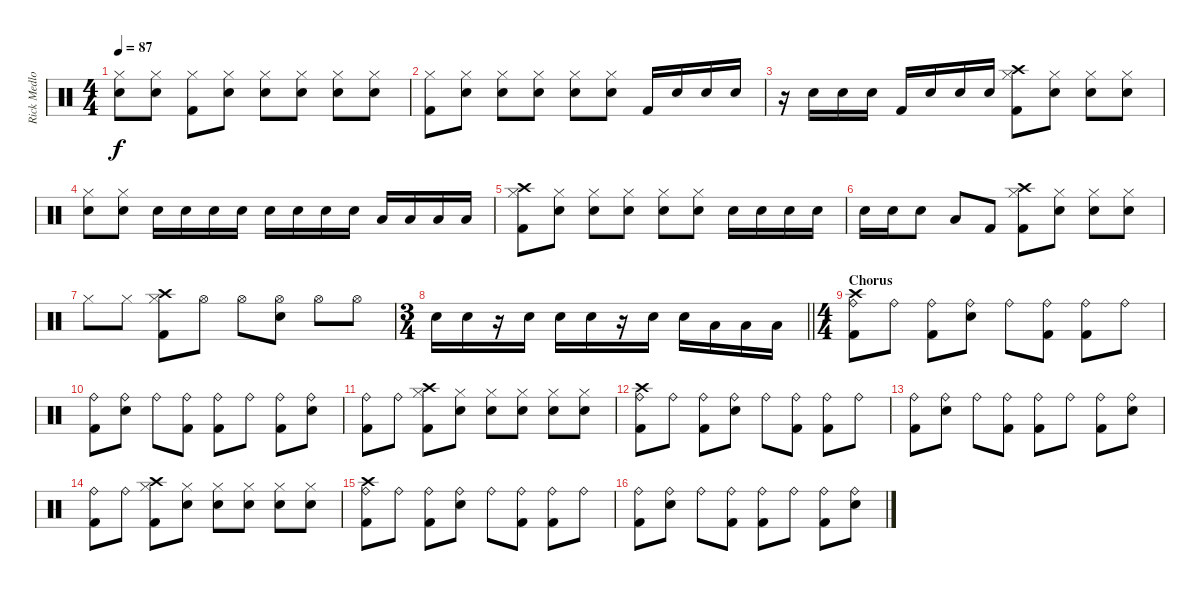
\track ("Rick Medlocke" "Rick Medlo") {instrument percussion}
\staff {score}
\articulation defaults
\ts (4 4)
\tempo 87
\clef neutral
\ks c
("Hi-Hat (closed)" "Electric Snare (hit)").8{dy f} ("Hi-Hat (closed)" "Electric Snare (hit)").8 ("Hi-Hat (closed)" "Kick (hit) 2").8 ("Hi-Hat (closed)" "Electric Snare (hit)").8 ("Hi-Hat (closed)" "Electric Snare (hit)").8 ("Hi-Hat (closed)" "Snare (hit) 2").8 ("Hi-Hat (closed)" "Electric Snare (hit)").8 ("Hi-Hat (closed)" "Electric Snare (hit)").8 |
("Hi-Hat (closed)" "Kick (hit) 2").8 ("Hi-Hat (closed)" "Electric Snare (hit)").8 ("Hi-Hat (closed)" "Electric Snare (hit)").8 ("Hi-Hat (closed)" "Snare (hit) 2").8 ("Hi-Hat (closed)" "Electric Snare (hit)").8 ("Hi-Hat (closed)" "Electric Snare (hit)").8 "Kick (hit) 2".16 "Snare (hit) 2".16 "Snare (hit) 2".16 "Snare (hit) 2".16 |
r.16 "Snare (hit) 2".16 "Snare (hit) 2".16 "Snare (hit) 2".16 "Kick (hit) 2".16 "Snare (hit) 2".16 "Snare (hit) 2".16 "Snare (hit) 2".16 ("Crash high (hit)" "Hi-Hat (closed)" "Kick (hit) 2").8 ("Hi-Hat (closed)" "Electric Snare (hit)").8 ("Hi-Hat (closed)" "Electric Snare (hit)").8 ("Hi-Hat (closed)" "Snare (hit) 2").8 |
("Hi-Hat (closed)" "Electric Snare (hit)").8 ("Hi-Hat (closed)" "Electric Snare (hit)").8 "Snare (hit) 2".16 "Snare (hit) 2".16 "Snare (hit) 2".16 "Snare (hit) 2".16 "Electric Snare (hit)".16 "Electric Snare (hit)".16 "Electric Snare (hit)".16 "Electric Snare (hit)".16 "Low Tom (hit)".16 "Low Tom (hit)".16 "Low Tom (hit)".16 "Low Tom (hit)".16 |
("Crash high (hit)" "Hi-Hat (closed)" "Kick (hit) 2").8 ("Hi-Hat (closed)" "Electric Snare (hit)").8 ("Hi-Hat (closed)" "Electric Snare (hit)").8 ("Hi-Hat (closed)" "Snare (hit) 2").8 ("Hi-Hat (closed)" "Electric Snare (hit)").8 ("Hi-Hat (closed)" "Electric Snare (hit)").8 "Electric Snare (hit)".16 "Electric Snare (hit)".16 "Electric Snare (hit)".16 "Electric Snare (hit)".16 |
"Electric Snare (hit)".16 "Electric Snare (hit)".16 "Snare (hit) 2".8 "Low Tom (hit)".8 "Kick (hit) 2".8 ("Crash high (hit)" "Hi-Hat (closed)" "Kick (hit) 2").8 ("Hi-Hat (closed)" "Electric Snare (hit)").8 ("Hi-Hat (closed)" "Electric Snare (hit)").8 ("Hi-Hat (closed)" "Snare (hit) 2").8 |
"Hi-Hat (closed)".8 "Hi-Hat (closed)".8 ("Crash high (hit)" "Hi-Hat (closed)" "Kick (hit) 2").8 "Hi-Hat (open)".8 "Hi-Hat (open)".8 ("Hi-Hat (open)" "Electric Snare (hit)").8 "Hi-Hat (open)".8 "Hi-Hat (open)".8 |
\ts (3 4)
\barLineRight lightlight "Electric Snare (hit)".16 "Electric Snare (hit)".16
r.16 "Electric Snare (hit)".16 "Electric Snare (hit)".16 "Electric Snare (hit)".16 r.16 "Electric Snare (hit)".16 "Electric Snare (hit)".16 "Low Tom (hit)".16 "Low Tom (hit)".16 "Low Tom (hit)".16 |
\ts (4 4)
\section ("" "Chorus")
("Crash high (hit)" "Ride (bell)" "Kick (hit) 2").8 "Ride (bell)".8 ("Ride (bell)" "Kick (hit) 2").8 ("Ride (bell)" "Electric Snare (hit)").8 "Ride (bell)".8 ("Ride (bell)" "Kick (hit) 2").8 ("Ride (bell)" "Kick (hit) 2").8 "Ride (bell)".8 |
("Ride (bell)" "Kick (hit) 2").8 ("Ride (bell)" "Electric Snare (hit)").8 "Ride (bell)".8 ("Ride (bell)" "Kick (hit) 2").8 ("Ride (bell)" "Kick (hit) 2").8 "Ride (bell)".8 ("Ride (bell)" "Kick (hit) 2").8 ("Ride (bell)" "Electric Snare (hit)").8 |
("Ride (bell)" "Kick (hit) 2").8 "Ride (bell)".8 ("Crash high (hit)" "Hi-Hat (closed)" "Kick (hit) 2").8 ("Hi-Hat (closed)" "Electric Snare (hit)").8 ("Hi-Hat (closed)" "Electric Snare (hit)").8 ("Hi-Hat (closed)" "Snare (hit) 2").8 ("Hi-Hat (closed)" "Electric Snare (hit)").8 ("Hi-Hat (closed)" "Electric Snare (hit)").8 |
("Crash high (hit)" "Ride (bell)" "Kick (hit) 2").8 "Ride (bell)".8 ("Ride (bell)" "Kick (hit) 2").8 ("Ride (bell)" "Electric Snare (hit)").8 "Ride (bell)".8 ("Ride (bell)" "Kick (hit) 2").8 ("Ride (bell)" "Kick (hit) 2").8 "Ride (bell)".8 |
("Ride (bell)" "Kick (hit) 2").8 ("Ride (bell)" "Electric Snare (hit)").8 "Ride (bell)".8 ("Ride (bell)" "Kick (hit) 2").8 ("Ride (bell)" "Kick (hit) 2").8 "Ride (bell)".8 ("Ride (bell)" "Kick (hit) 2").8 ("Ride (bell)" "Electric Snare (hit)").8 |
("Ride (bell)" "Kick (hit) 2").8 "Ride (bell)".8 ("Crash high (hit)" "Hi-Hat (closed)" "Kick (hit) 2").8 ("Hi-Hat (closed)" "Electric Snare (hit)").8 ("Hi-Hat (closed)" "Electric Snare (hit)").8 ("Hi-Hat (closed)" "Snare (hit) 2").8 ("Hi-Hat (closed)" "Electric Snare (hit)").8 ("Hi-Hat (closed)" "Electric Snare (hit)").8 |
("Crash high (hit)" "Ride (bell)" "Kick (hit) 2").8 "Ride (bell)".8 ("Ride (bell)" "Kick (hit) 2").8 ("Ride (bell)" "Electric Snare (hit)").8 "Ride (bell)".8 ("Ride (bell)" "Kick (hit) 2").8 ("Ride (bell)" "Kick (hit) 2").8 "Ride (bell)".8 |
("Ride (bell)" "Kick (hit) 2").8 ("Ride (bell)" "Electric Snare (hit)").8 "Ride (bell)".8 ("Ride (bell)" "Kick (hit) 2").8 ("Ride (bell)" "Kick (hit) 2").8 "Ride (bell)".8 ("Ride (bell)" "Kick (hit) 2").8 ("Ride (bell)" "Electric Snare (hit)").8
